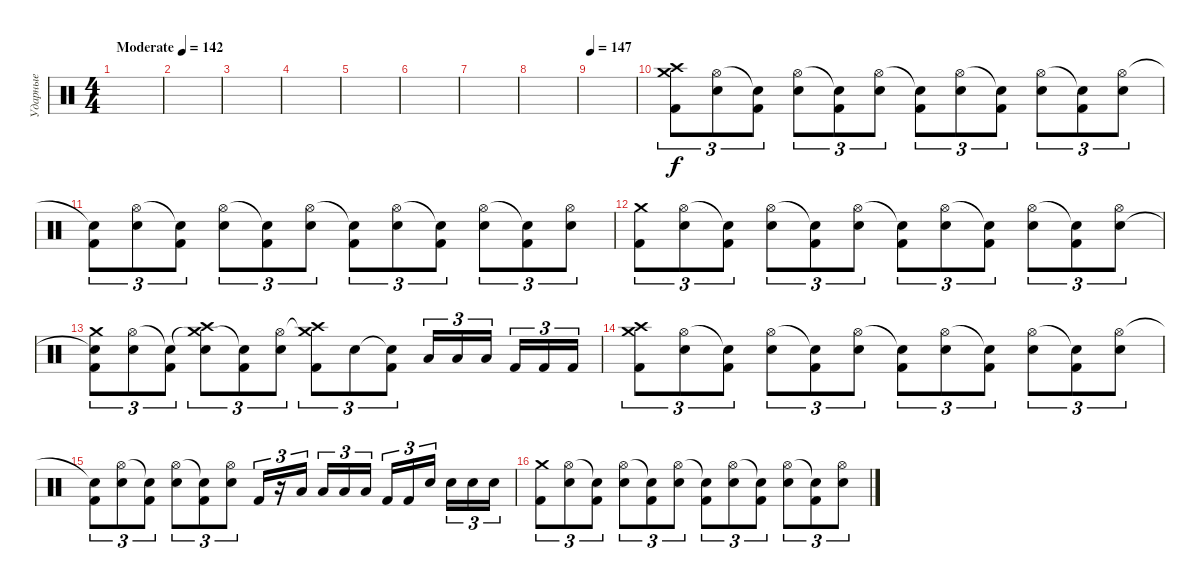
\track ("Ударные" "Ударные") {instrument percussion}
\staff {score}
\articulation defaults
\ts (4 4)
\tempo (142 "Moderate")
\clef neutral
\ks c
|
|
|
|
|
|
|
|
\tempo 147
|
("Crash medium (hit)" "Crash high (hit)" "Kick (hit) 2").8{tu (3 2)} ("Hi-Hat (open)" "Electric Snare (hit)").8{tu (3 2)} ("Snare (hit)"{t} "Kick (hit) 2").8{tu (3 2)} ("Hi-Hat (open)" "Electric Snare (hit)").8{tu (3 2)} ("Snare (hit)"{t} "Kick (hit) 2").8{tu (3 2)} ("Hi-Hat (open)" "Electric Snare (hit)").8{tu (3 2)} ("Snare (hit)"{t} "Kick (hit) 2").8{tu (3 2)} ("Hi-Hat (open)" "Electric Snare (hit)").8{tu (3 2)} ("Snare (hit)"{t} "Kick (hit) 2").8{tu (3 2)} ("Hi-Hat (open)" "Electric Snare (hit)").8{tu (3 2)} ("Snare (hit)"{t} "Kick (hit) 2").8{tu (3 2)} ("Hi-Hat (open)" "Electric Snare (hit)").8{tu (3 2)} |
("Snare (hit)"{t} "Kick (hit) 2").8{tu (3 2)} ("Hi-Hat (open)" "Electric Snare (hit)").8{tu (3 2)} ("Snare (hit)"{t} "Kick (hit) 2").8{tu (3 2)} ("Hi-Hat (open)" "Electric Snare (hit)").8{tu (3 2)} ("Snare (hit)"{t} "Kick (hit) 2").8{tu (3 2)} ("Hi-Hat (open)" "Electric Snare (hit)").8{tu (3 2)} ("Snare (hit)"{t} "Kick (hit) 2").8{tu (3 2)} ("Hi-Hat (open)" "Electric Snare (hit)").8{tu (3 2)} ("Snare (hit)"{t} "Kick (hit) 2").8{tu (3 2)} ("Hi-Hat (open)" "Electric Snare (hit)").8{tu (3 2)} ("Snare (hit)"{t} "Kick (hit) 2").8{tu (3 2)} ("Hi-Hat (open)" "Electric Snare (hit)").8{tu (3 2)} |
("Crash medium (hit)" "Kick (hit) 2").8{tu (3 2)} ("Hi-Hat (open)" "Electric Snare (hit)").8{tu (3 2)} ("Snare (hit)"{t} "Kick (hit) 2").8{tu (3 2)} ("Hi-Hat (open)" "Electric Snare (hit)").8{tu (3 2)} ("Snare (hit)"{t} "Kick (hit) 2").8{tu (3 2)} ("Hi-Hat (open)" "Electric Snare (hit)").8{tu (3 2)} ("Snare (hit)"{t} "Kick (hit) 2").8{tu (3 2)} ("Hi-Hat (open)" "Electric Snare (hit)").8{tu (3 2)} ("Snare (hit)"{t} "Kick (hit) 2").8{tu (3 2)} ("Hi-Hat (open)" "Electric Snare (hit)").8{tu (3 2)} ("Snare (hit)"{t} "Kick (hit) 2").8{tu (3 2)} ("Hi-Hat (open)" "Electric Snare (hit)").8{tu (3 2)} |
("Crash medium (hit)" "Snare (hit)"{t} "Kick (hit) 2").8{tu (3 2)} ("Hi-Hat (open)" "Electric Snare (hit)").8{tu (3 2)} ("Snare (hit)"{t} "Kick (hit) 2").8{tu (3 2)} ("Crash medium (hit)"{t} "Crash high (hit)" "Electric Snare (hit)").8{tu (3 2)} ("Snare (hit)"{t} "Kick (hit) 2").8{tu (3 2)} ("Hi-Hat (open)" "Electric Snare (hit)").8{tu (3 2)} ("Crash medium (hit)"{t} "Crash high (hit)" "Kick (hit) 2").8{tu (3 2)} "Electric Snare (hit)".8{tu (3 2)} ("Snare (hit)"{t} "Kick (hit) 2").8{tu (3 2)} "Low Tom (hit)".16{tu (3 2)} "Low Tom (hit)".16{tu (3 2)} "Low Tom (hit)".16{tu (3 2) beam splitsecondary} "Kick (hit) 2".16{tu (3 2)} "Kick (hit) 2".16{tu (3 2)} "Kick (hit) 2".16{tu (3 2)} |
("Crash medium (hit)" "Crash high (hit)" "Kick (hit) 2").8{tu (3 2)} ("Hi-Hat (open)" "Electric Snare (hit)").8{tu (3 2)} ("Snare (hit)"{t} "Kick (hit) 2").8{tu (3 2)} ("Hi-Hat (open)" "Electric Snare (hit)").8{tu (3 2)} ("Snare (hit)"{t} "Kick (hit) 2").8{tu (3 2)} ("Hi-Hat (open)" "Electric Snare (hit)").8{tu (3 2)} ("Snare (hit)"{t} "Kick (hit) 2").8{tu (3 2)} ("Hi-Hat (open)" "Electric Snare (hit)").8{tu (3 2)} ("Snare (hit)"{t} "Kick (hit) 2").8{tu (3 2)} ("Hi-Hat (open)" "Electric Snare (hit)").8{tu (3 2)} ("Snare (hit)"{t} "Kick (hit) 2").8{tu (3 2)} ("Hi-Hat (open)" "Electric Snare (hit)").8{tu (3 2)} |
("Snare (hit)"{t} "Kick (hit) 2").8{tu (3 2)} ("Hi-Hat (open)" "Electric Snare (hit)").8{tu (3 2)} ("Snare (hit)"{t} "Kick (hit) 2").8{tu (3 2)} ("Hi-Hat (open)" "Electric Snare (hit)").8{tu (3 2)} ("Snare (hit)"{t} "Kick (hit) 2").8{tu (3 2)} ("Hi-Hat (open)" "Electric Snare (hit)").8{tu (3 2)} "Kick (hit) 2".16{tu (3 2)} r.16{tu (3 2)} "Low Tom (hit)".16{tu (3 2) beam splitsecondary} "Low Tom (hit)".16{tu (3 2)} "Low Tom (hit)".16{tu (3 2)} "Low Tom (hit)".16{tu (3 2)} "Kick (hit) 2".16{tu (3 2)} "Kick (hit) 2".16{tu (3 2)} "Electric Snare (hit)".16{tu (3 2) beam splitsecondary} "Electric Snare (hit)".16{tu (3 2)} "Electric Snare (hit)".16{tu (3 2)} "Electric Snare (hit)".16{tu (3 2)} |
("Crash medium (hit)" "Kick (hit) 2").8{tu (3 2)} ("Hi-Hat (open)" "Electric Snare (hit)").8{tu (3 2)} ("Snare (hit)"{t} "Kick (hit) 2").8{tu (3 2)} ("Hi-Hat (open)" "Electric Snare (hit)").8{tu (3 2)} ("Snare (hit)"{t} "Kick (hit) 2").8{tu (3 2)} ("Hi-Hat (open)" "Electric Snare (hit)").8{tu (3 2)} ("Snare (hit)"{t} "Kick (hit) 2").8{tu (3 2)} ("Hi-Hat (open)" "Electric Snare (hit)").8{tu (3 2)} ("Snare (hit)"{t} "Kick (hit) 2").8{tu (3 2)} ("Hi-Hat (open)" "Electric Snare (hit)").8{tu (3 2)} ("Snare (hit)"{t} "Kick (hit) 2").8{tu (3 2)} ("Hi-Hat (open)" "Electric Snare (hit)").8{tu (3 2)}
